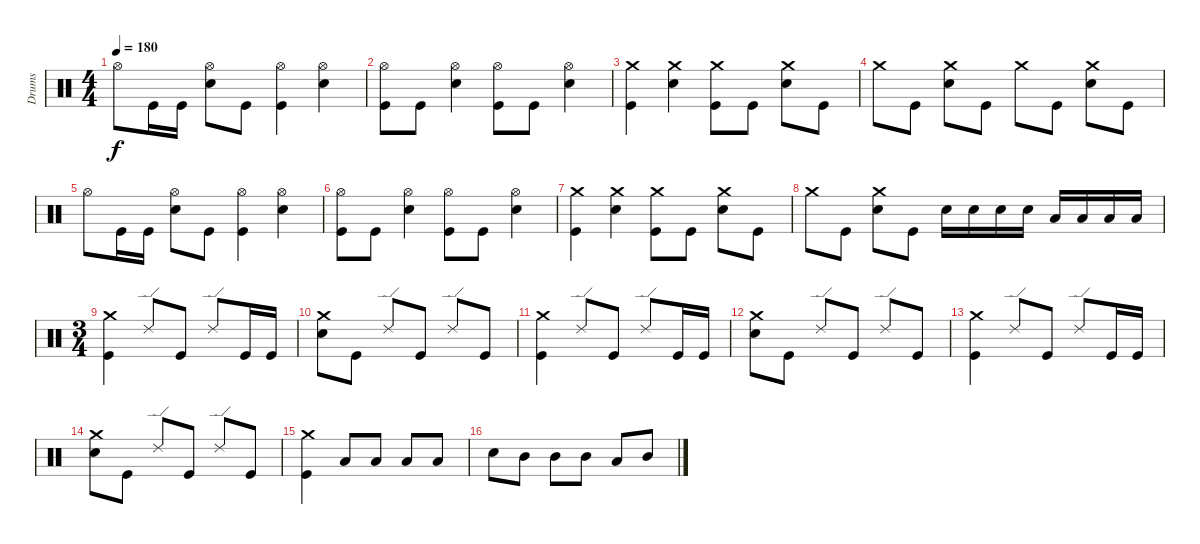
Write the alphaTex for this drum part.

\track ("Drums" "Drums") {instrument percussion}
\staff {score}
\articulation defaults
\ts (4 4)
\tempo 180
\clef neutral
\ks c "Hi-Hat (open)".8{dy f} "Kick (hit)".16 "Kick (hit)".16
("Hi-Hat (open)" "Electric Snare (hit)").8 "Kick (hit)".8 ("Hi-Hat (open)" "Kick (hit)").4 ("Hi-Hat (open)" "Electric Snare (hit)").4 |
("Hi-Hat (open)" "Kick (hit)").8 "Kick (hit)".8 ("Hi-Hat (open)" "Electric Snare (hit)").4 ("Hi-Hat (open)" "Kick (hit)").8 "Kick (hit)".8 ("Hi-Hat (open)" "Electric Snare (hit)").4 |
("Crash medium (hit)" "Kick (hit)").4 ("Crash medium (hit)" "Electric Snare (hit)").4 ("Crash medium (hit)" "Kick (hit)").8 "Kick (hit)".8 ("Crash medium (hit)" "Electric Snare (hit)").8 "Kick (hit)".8 |
"Crash medium (hit)".8 "Kick (hit)".8 ("Crash medium (hit)" "Electric Snare (hit)").8 "Kick (hit)".8 "Crash medium (hit)".8 "Kick (hit)".8 ("Crash medium (hit)" "Electric Snare (hit)").8 "Kick (hit)".8 |
"Hi-Hat (open)".8 "Kick (hit)".16 "Kick (hit)".16 ("Hi-Hat (open)" "Electric Snare (hit)").8 "Kick (hit)".8 ("Hi-Hat (open)" "Kick (hit)").4 ("Hi-Hat (open)" "Electric Snare (hit)").4 |
("Hi-Hat (open)" "Kick (hit)").8 "Kick (hit)".8 ("Hi-Hat (open)" "Electric Snare (hit)").4 ("Hi-Hat (open)" "Kick (hit)").8 "Kick (hit)".8 ("Hi-Hat (open)" "Electric Snare (hit)").4 |
("Crash medium (hit)" "Kick (hit)").4 ("Crash medium (hit)" "Electric Snare (hit)").4 ("Crash medium (hit)" "Kick (hit)").8 "Kick (hit)".8 ("Crash medium (hit)" "Electric Snare (hit)").8 "Kick (hit)".8 |
"Crash medium (hit)".8 "Kick (hit)".8 ("Crash medium (hit)" "Electric Snare (hit)").8 "Kick (hit)".8 "Electric Snare (hit)".16 "Electric Snare (hit)".16 "Electric Snare (hit)".16 "Electric Snare (hit)".16 "Low Tom (hit)".16 "Low Tom (hit)".16 "Low Tom (hit)".16 "Low Tom (hit)".16 |
\ts (3 4)
("Crash medium (hit)" "Kick (hit)").4 "Ride (edge) 2".8 "Kick (hit)".8 "Ride (edge) 2".8 "Kick (hit)".16 "Kick (hit)".16 |
("Crash medium (hit)" "Electric Snare (hit)").8 "Kick (hit)".8 "Ride (edge) 2".8 "Kick (hit)".8 "Ride (edge) 2".8 "Kick (hit)".8 |
("Crash medium (hit)" "Kick (hit)").4 "Ride (edge) 2".8 "Kick (hit)".8 "Ride (edge) 2".8 "Kick (hit)".16 "Kick (hit)".16 |
("Crash medium (hit)" "Electric Snare (hit)").8 "Kick (hit)".8 "Ride (edge) 2".8 "Kick (hit)".8 "Ride (edge) 2".8 "Kick (hit)".8 |
("Crash medium (hit)" "Kick (hit)").4 "Ride (edge) 2".8 "Kick (hit)".8 "Ride (edge) 2".8 "Kick (hit)".16 "Kick (hit)".16 |
("Crash medium (hit)" "Electric Snare (hit)").8 "Kick (hit)".8 "Ride (edge) 2".8 "Kick (hit)".8 "Ride (edge) 2".8 "Kick (hit)".8 |
("Crash medium (hit)" "Kick (hit)").4 "Low Floor Tom (hit)".8 "Low Floor Tom (hit)".8 "Low Tom (hit)".8 "Low Tom (hit)".8 |
"Electric Snare (hit)".8 "Mid Tom (hit)".8 "Mid Tom (hit)".8 "Mid Tom (hit)".8 "Low Floor Tom (hit)".8 "Mid Tom (hit)".8
